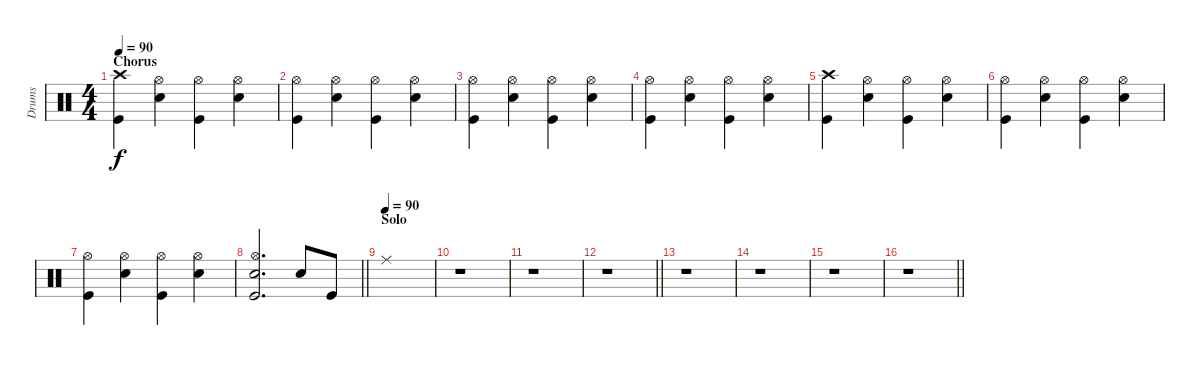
\track ("Drums" "Drums") {instrument percussion}
\staff {score}
\articulation defaults
\ts (4 4)
\section ("" "Chorus")
\tempo 90
\clef neutral
\ks c
("Crash high (hit)" "Kick (hit)").4{dy f} ("Hi-Hat (open)" "Snare (hit) 2").4 ("Hi-Hat (open)" "Kick (hit)").4 ("Hi-Hat (open)" "Snare (hit) 2").4 |
("Hi-Hat (open)" "Kick (hit)").4 ("Hi-Hat (open)" "Snare (hit) 2").4 ("Hi-Hat (open)" "Kick (hit)").4 ("Hi-Hat (open)" "Snare (hit) 2").4 |
("Hi-Hat (open)" "Kick (hit)").4 ("Hi-Hat (open)" "Snare (hit) 2").4 ("Hi-Hat (open)" "Kick (hit)").4 ("Hi-Hat (open)" "Snare (hit) 2").4 |
("Hi-Hat (open)" "Kick (hit)").4 ("Hi-Hat (open)" "Snare (hit) 2").4 ("Hi-Hat (open)" "Kick (hit)").4 ("Hi-Hat (open)" "Snare (hit) 2").4 |
("Crash high (hit)" "Kick (hit)").4 ("Hi-Hat (open)" "Snare (hit) 2").4 ("Hi-Hat (open)" "Kick (hit)").4 ("Hi-Hat (open)" "Snare (hit) 2").4 |
("Hi-Hat (open)" "Kick (hit)").4 ("Hi-Hat (open)" "Snare (hit) 2").4 ("Hi-Hat (open)" "Kick (hit)").4 ("Hi-Hat (open)" "Snare (hit) 2").4 |
("Hi-Hat (open)" "Kick (hit)").4 ("Hi-Hat (open)" "Snare (hit) 2").4 ("Hi-Hat (open)" "Kick (hit)").4 ("Hi-Hat (open)" "Snare (hit) 2").4 |
\barLineRight lightlight
("Hi-Hat (open)" "Snare (hit) 2" "Kick (hit)").2{d} "Snare (hit) 2".8 "Kick (hit)".8 |
\section ("" "Solo")
\tempo (90)
"Ride (middle)".1 |
r.1 |
r.1 |
\barLineRight lightlight
r.1 |
r.1 |
r.1 |
r.1 |
\barLineRight lightlight
r.1
